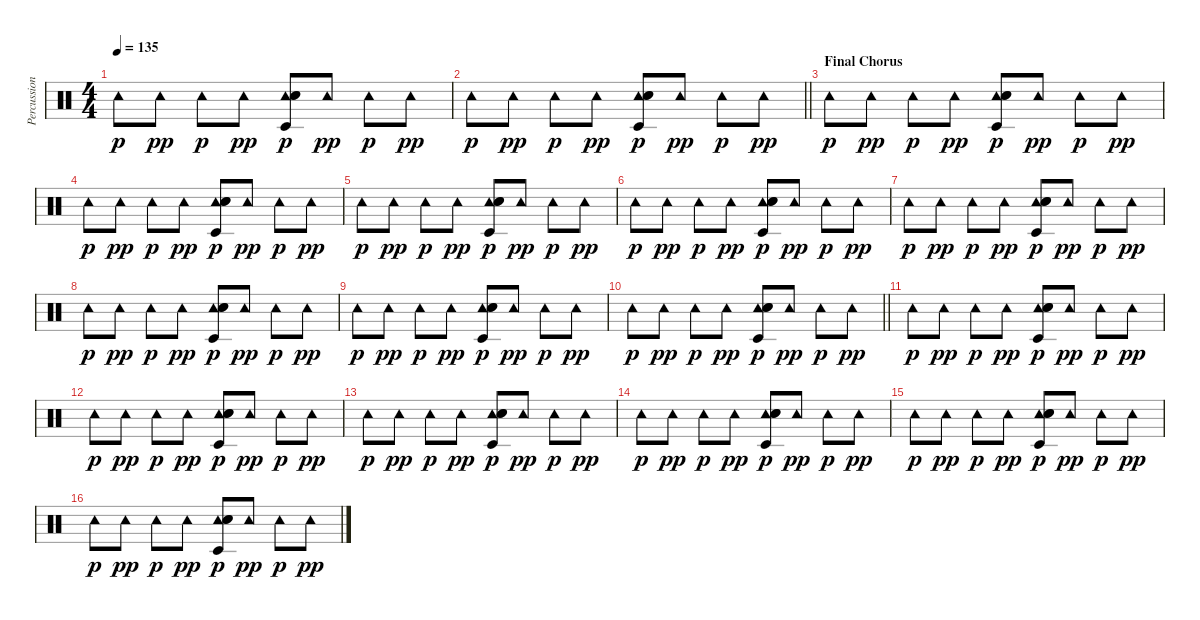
\track ("Percussion" "Percussion") {instrument percussion}
\staff {score}
\articulation defaults
\ts (4 4)
\tempo 135
\clef neutral
\ks c "Tambourine (hit)".8{dy p} "Tambourine (hit)".8{dy pp} "Tambourine (hit)".8{dy p} "Tambourine (hit)".8{dy pp}
("Tambourine (hit)" "Hand Clap (hit)" "Snare (hit) 2" "Timbale low (hit)").8{dy p} "Tambourine (hit)".8{dy pp} "Tambourine (hit)".8{dy p} "Tambourine (hit)".8{dy pp} |
\barLineRight lightlight "Tambourine (hit)".8{dy p} "Tambourine (hit)".8{dy pp} "Tambourine (hit)".8{dy p} "Tambourine (hit)".8{dy pp}
("Tambourine (hit)" "Hand Clap (hit)" "Snare (hit) 2" "Timbale low (hit)").8{dy p} "Tambourine (hit)".8{dy pp} "Tambourine (hit)".8{dy p} "Tambourine (hit)".8{dy pp} |
\section ("" "Final Chorus")
"Tambourine (hit)".8{dy p} "Tambourine (hit)".8{dy pp} "Tambourine (hit)".8{dy p} "Tambourine (hit)".8{dy pp} ("Tambourine (hit)" "Hand Clap (hit)" "Snare (hit) 2" "Timbale low (hit)").8{dy p} "Tambourine (hit)".8{dy pp} "Tambourine (hit)".8{dy p} "Tambourine (hit)".8{dy pp} |
"Tambourine (hit)".8{dy p} "Tambourine (hit)".8{dy pp} "Tambourine (hit)".8{dy p} "Tambourine (hit)".8{dy pp} ("Tambourine (hit)" "Hand Clap (hit)" "Snare (hit) 2" "Timbale low (hit)").8{dy p} "Tambourine (hit)".8{dy pp} "Tambourine (hit)".8{dy p} "Tambourine (hit)".8{dy pp} |
"Tambourine (hit)".8{dy p} "Tambourine (hit)".8{dy pp} "Tambourine (hit)".8{dy p} "Tambourine (hit)".8{dy pp} ("Tambourine (hit)" "Hand Clap (hit)" "Snare (hit) 2" "Timbale low (hit)").8{dy p} "Tambourine (hit)".8{dy pp} "Tambourine (hit)".8{dy p} "Tambourine (hit)".8{dy pp} |
"Tambourine (hit)".8{dy p} "Tambourine (hit)".8{dy pp} "Tambourine (hit)".8{dy p} "Tambourine (hit)".8{dy pp} ("Tambourine (hit)" "Hand Clap (hit)" "Snare (hit) 2" "Timbale low (hit)").8{dy p} "Tambourine (hit)".8{dy pp} "Tambourine (hit)".8{dy p} "Tambourine (hit)".8{dy pp} |
"Tambourine (hit)".8{dy p} "Tambourine (hit)".8{dy pp} "Tambourine (hit)".8{dy p} "Tambourine (hit)".8{dy pp} ("Tambourine (hit)" "Hand Clap (hit)" "Snare (hit) 2" "Timbale low (hit)").8{dy p} "Tambourine (hit)".8{dy pp} "Tambourine (hit)".8{dy p} "Tambourine (hit)".8{dy pp} |
"Tambourine (hit)".8{dy p} "Tambourine (hit)".8{dy pp} "Tambourine (hit)".8{dy p} "Tambourine (hit)".8{dy pp} ("Tambourine (hit)" "Hand Clap (hit)" "Snare (hit) 2" "Timbale low (hit)").8{dy p} "Tambourine (hit)".8{dy pp} "Tambourine (hit)".8{dy p} "Tambourine (hit)".8{dy pp} |
"Tambourine (hit)".8{dy p} "Tambourine (hit)".8{dy pp} "Tambourine (hit)".8{dy p} "Tambourine (hit)".8{dy pp} ("Tambourine (hit)" "Hand Clap (hit)" "Snare (hit) 2" "Timbale low (hit)").8{dy p} "Tambourine (hit)".8{dy pp} "Tambourine (hit)".8{dy p} "Tambourine (hit)".8{dy pp} |
\barLineRight lightlight "Tambourine (hit)".8{dy p} "Tambourine (hit)".8{dy pp} "Tambourine (hit)".8{dy p} "Tambourine (hit)".8{dy pp}
("Tambourine (hit)" "Hand Clap (hit)" "Snare (hit) 2" "Timbale low (hit)").8{dy p} "Tambourine (hit)".8{dy pp} "Tambourine (hit)".8{dy p} "Tambourine (hit)".8{dy pp} |
"Tambourine (hit)".8{dy p} "Tambourine (hit)".8{dy pp} "Tambourine (hit)".8{dy p} "Tambourine (hit)".8{dy pp} ("Tambourine (hit)" "Hand Clap (hit)" "Snare (hit) 2" "Timbale low (hit)").8{dy p} "Tambourine (hit)".8{dy pp} "Tambourine (hit)".8{dy p} "Tambourine (hit)".8{dy pp} |
"Tambourine (hit)".8{dy p} "Tambourine (hit)".8{dy pp} "Tambourine (hit)".8{dy p} "Tambourine (hit)".8{dy pp} ("Tambourine (hit)" "Hand Clap (hit)" "Snare (hit) 2" "Timbale low (hit)").8{dy p} "Tambourine (hit)".8{dy pp} "Tambourine (hit)".8{dy p} "Tambourine (hit)".8{dy pp} |
"Tambourine (hit)".8{dy p} "Tambourine (hit)".8{dy pp} "Tambourine (hit)".8{dy p} "Tambourine (hit)".8{dy pp} ("Tambourine (hit)" "Hand Clap (hit)" "Snare (hit) 2" "Timbale low (hit)").8{dy p} "Tambourine (hit)".8{dy pp} "Tambourine (hit)".8{dy p} "Tambourine (hit)".8{dy pp} |
"Tambourine (hit)".8{dy p} "Tambourine (hit)".8{dy pp} "Tambourine (hit)".8{dy p} "Tambourine (hit)".8{dy pp} ("Tambourine (hit)" "Hand Clap (hit)" "Snare (hit) 2" "Timbale low (hit)").8{dy p} "Tambourine (hit)".8{dy pp} "Tambourine (hit)".8{dy p} "Tambourine (hit)".8{dy pp} |
"Tambourine (hit)".8{dy p} "Tambourine (hit)".8{dy pp} "Tambourine (hit)".8{dy p} "Tambourine (hit)".8{dy pp} ("Tambourine (hit)" "Hand Clap (hit)" "Snare (hit) 2" "Timbale low (hit)").8{dy p} "Tambourine (hit)".8{dy pp} "Tambourine (hit)".8{dy p} "Tambourine (hit)".8{dy pp} |
"Tambourine (hit)".8{dy p} "Tambourine (hit)".8{dy pp} "Tambourine (hit)".8{dy p} "Tambourine (hit)".8{dy pp} ("Tambourine (hit)" "Hand Clap (hit)" "Snare (hit) 2" "Timbale low (hit)").8{dy p} "Tambourine (hit)".8{dy pp} "Tambourine (hit)".8{dy p} "Tambourine (hit)".8{dy pp}
